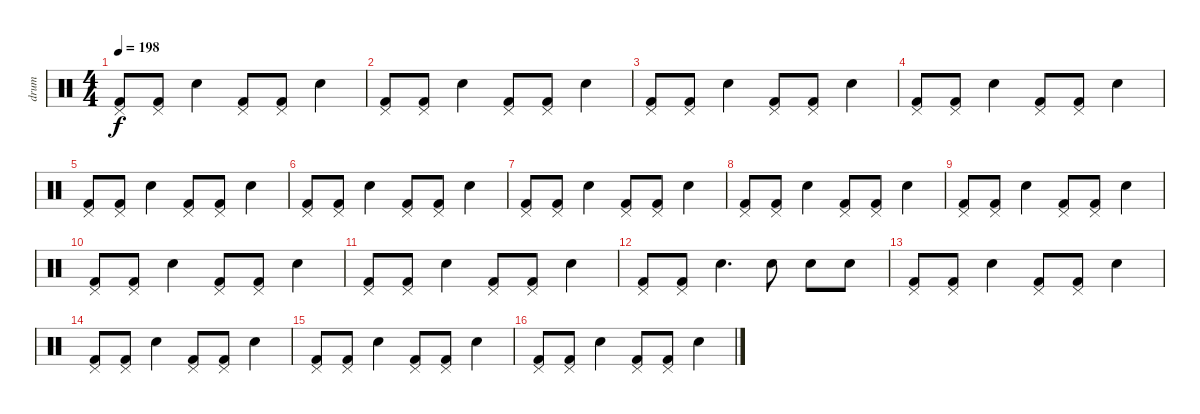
\track ("drum" "drum") {instrument percussion}
\staff {score}
\articulation defaults
\ts (4 4)
\tempo 198
\clef neutral
\ks c
("Pedal Hi-Hat (hit)" "Kick (hit) 2").8{dy f} ("Pedal Hi-Hat (hit)" "Kick (hit) 2").8 "Electric Snare (hit)".4 ("Pedal Hi-Hat (hit)" "Kick (hit) 2").8 ("Pedal Hi-Hat (hit)" "Kick (hit) 2").8 "Electric Snare (hit)".4 |
("Pedal Hi-Hat (hit)" "Kick (hit) 2").8 ("Pedal Hi-Hat (hit)" "Kick (hit) 2").8 "Electric Snare (hit)".4 ("Pedal Hi-Hat (hit)" "Kick (hit) 2").8 ("Pedal Hi-Hat (hit)" "Kick (hit) 2").8 "Electric Snare (hit)".4 |
("Pedal Hi-Hat (hit)" "Kick (hit) 2").8 ("Pedal Hi-Hat (hit)" "Kick (hit) 2").8 "Electric Snare (hit)".4 ("Pedal Hi-Hat (hit)" "Kick (hit) 2").8 ("Pedal Hi-Hat (hit)" "Kick (hit) 2").8 "Electric Snare (hit)".4 |
("Pedal Hi-Hat (hit)" "Kick (hit) 2").8 ("Pedal Hi-Hat (hit)" "Kick (hit) 2").8 "Electric Snare (hit)".4 ("Pedal Hi-Hat (hit)" "Kick (hit) 2").8 ("Pedal Hi-Hat (hit)" "Kick (hit) 2").8 "Electric Snare (hit)".4 |
("Pedal Hi-Hat (hit)" "Kick (hit) 2").8 ("Pedal Hi-Hat (hit)" "Kick (hit) 2").8 "Electric Snare (hit)".4 ("Pedal Hi-Hat (hit)" "Kick (hit) 2").8 ("Pedal Hi-Hat (hit)" "Kick (hit) 2").8 "Electric Snare (hit)".4 |
("Pedal Hi-Hat (hit)" "Kick (hit) 2").8 ("Pedal Hi-Hat (hit)" "Kick (hit) 2").8 "Electric Snare (hit)".4 ("Pedal Hi-Hat (hit)" "Kick (hit) 2").8 ("Pedal Hi-Hat (hit)" "Kick (hit) 2").8 "Electric Snare (hit)".4 |
("Pedal Hi-Hat (hit)" "Kick (hit) 2").8 ("Pedal Hi-Hat (hit)" "Kick (hit) 2").8 "Electric Snare (hit)".4 ("Pedal Hi-Hat (hit)" "Kick (hit) 2").8 ("Pedal Hi-Hat (hit)" "Kick (hit) 2").8 "Electric Snare (hit)".4 |
("Pedal Hi-Hat (hit)" "Kick (hit) 2").8 ("Pedal Hi-Hat (hit)" "Kick (hit) 2").8 "Electric Snare (hit)".4 ("Pedal Hi-Hat (hit)" "Kick (hit) 2").8 ("Pedal Hi-Hat (hit)" "Kick (hit) 2").8 "Electric Snare (hit)".4 |
("Pedal Hi-Hat (hit)" "Kick (hit) 2").8 ("Pedal Hi-Hat (hit)" "Kick (hit) 2").8 "Electric Snare (hit)".4 ("Pedal Hi-Hat (hit)" "Kick (hit) 2").8 ("Pedal Hi-Hat (hit)" "Kick (hit) 2").8 "Electric Snare (hit)".4 |
("Pedal Hi-Hat (hit)" "Kick (hit) 2").8 ("Pedal Hi-Hat (hit)" "Kick (hit) 2").8 "Electric Snare (hit)".4 ("Pedal Hi-Hat (hit)" "Kick (hit) 2").8 ("Pedal Hi-Hat (hit)" "Kick (hit) 2").8 "Electric Snare (hit)".4 |
("Pedal Hi-Hat (hit)" "Kick (hit) 2").8 ("Pedal Hi-Hat (hit)" "Kick (hit) 2").8 "Electric Snare (hit)".4 ("Pedal Hi-Hat (hit)" "Kick (hit) 2").8 ("Pedal Hi-Hat (hit)" "Kick (hit) 2").8 "Electric Snare (hit)".4 |
("Pedal Hi-Hat (hit)" "Kick (hit) 2").8 ("Pedal Hi-Hat (hit)" "Kick (hit) 2").8 "Electric Snare (hit)".4{d} "Electric Snare (hit)".8 "Electric Snare (hit)".8 "Electric Snare (hit)".8 |
("Pedal Hi-Hat (hit)" "Kick (hit) 2").8 ("Pedal Hi-Hat (hit)" "Kick (hit) 2").8 "Electric Snare (hit)".4 ("Pedal Hi-Hat (hit)" "Kick (hit) 2").8 ("Pedal Hi-Hat (hit)" "Kick (hit) 2").8 "Electric Snare (hit)".4 |
("Pedal Hi-Hat (hit)" "Kick (hit) 2").8 ("Pedal Hi-Hat (hit)" "Kick (hit) 2").8 "Electric Snare (hit)".4 ("Pedal Hi-Hat (hit)" "Kick (hit) 2").8 ("Pedal Hi-Hat (hit)" "Kick (hit) 2").8 "Electric Snare (hit)".4 |
("Pedal Hi-Hat (hit)" "Kick (hit) 2").8 ("Pedal Hi-Hat (hit)" "Kick (hit) 2").8 "Electric Snare (hit)".4 ("Pedal Hi-Hat (hit)" "Kick (hit) 2").8 ("Pedal Hi-Hat (hit)" "Kick (hit) 2").8 "Electric Snare (hit)".4 |
("Pedal Hi-Hat (hit)" "Kick (hit) 2").8 ("Pedal Hi-Hat (hit)" "Kick (hit) 2").8 "Electric Snare (hit)".4 ("Pedal Hi-Hat (hit)" "Kick (hit) 2").8 ("Pedal Hi-Hat (hit)" "Kick (hit) 2").8 "Electric Snare (hit)".4
